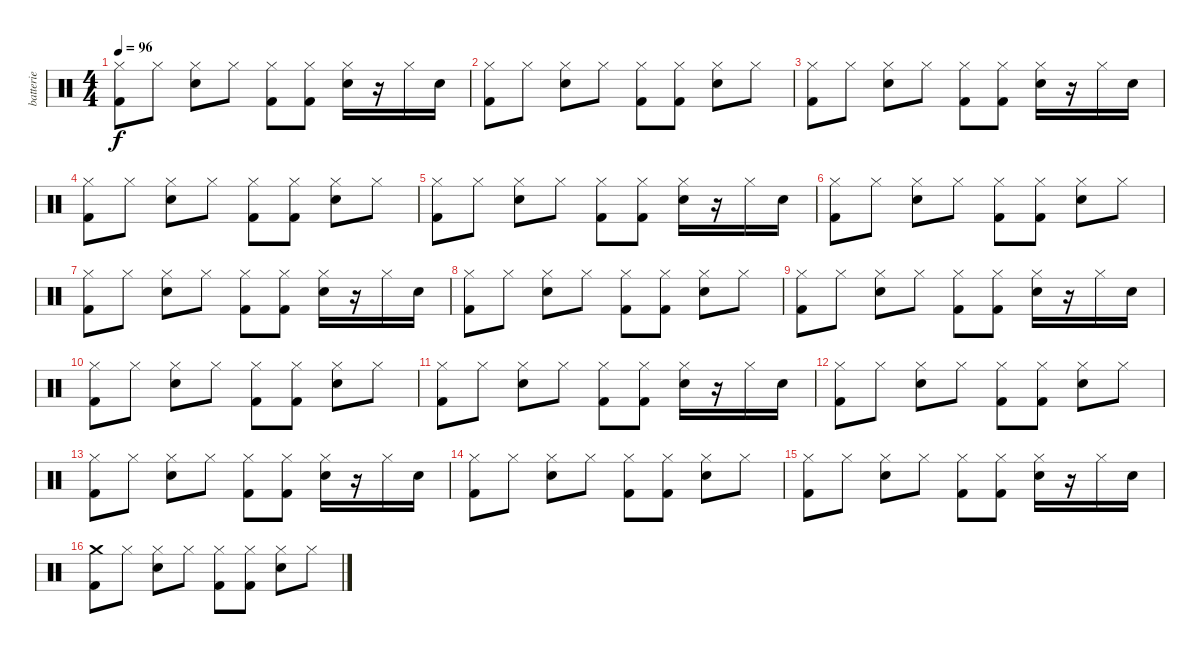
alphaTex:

\track ("batterie" "batterie") {instrument percussion}
\staff {score}
\articulation defaults
\ts (4 4)
\tempo 96
\clef neutral
\ks c
("Hi-Hat (closed)" "Kick (hit) 2").8{dy f} "Hi-Hat (closed)".8 ("Hi-Hat (closed)" "Electric Snare (hit)").8 "Hi-Hat (closed)".8 ("Hi-Hat (closed)" "Kick (hit) 2").8 ("Hi-Hat (closed)" "Kick (hit) 2").8 ("Hi-Hat (closed)" "Electric Snare (hit)").16 r.16 "Hi-Hat (closed)".16 "Electric Snare (hit)".16 |
("Hi-Hat (closed)" "Kick (hit) 2").8 "Hi-Hat (closed)".8 ("Hi-Hat (closed)" "Electric Snare (hit)").8 "Hi-Hat (closed)".8 ("Hi-Hat (closed)" "Kick (hit) 2").8 ("Hi-Hat (closed)" "Kick (hit) 2").8 ("Hi-Hat (closed)" "Electric Snare (hit)").8 "Hi-Hat (closed)".8 |
("Hi-Hat (closed)" "Kick (hit) 2").8 "Hi-Hat (closed)".8 ("Hi-Hat (closed)" "Electric Snare (hit)").8 "Hi-Hat (closed)".8 ("Hi-Hat (closed)" "Kick (hit) 2").8 ("Hi-Hat (closed)" "Kick (hit) 2").8 ("Hi-Hat (closed)" "Electric Snare (hit)").16 r.16 "Hi-Hat (closed)".16 "Electric Snare (hit)".16 |
("Hi-Hat (closed)" "Kick (hit) 2").8 "Hi-Hat (closed)".8 ("Hi-Hat (closed)" "Electric Snare (hit)").8 "Hi-Hat (closed)".8 ("Hi-Hat (closed)" "Kick (hit) 2").8 ("Hi-Hat (closed)" "Kick (hit) 2").8 ("Hi-Hat (closed)" "Electric Snare (hit)").8 "Hi-Hat (closed)".8 |
("Hi-Hat (closed)" "Kick (hit) 2").8 "Hi-Hat (closed)".8 ("Hi-Hat (closed)" "Electric Snare (hit)").8 "Hi-Hat (closed)".8 ("Hi-Hat (closed)" "Kick (hit) 2").8 ("Hi-Hat (closed)" "Kick (hit) 2").8 ("Hi-Hat (closed)" "Electric Snare (hit)").16 r.16 "Hi-Hat (closed)".16 "Electric Snare (hit)".16 |
("Hi-Hat (closed)" "Kick (hit) 2").8 "Hi-Hat (closed)".8 ("Hi-Hat (closed)" "Electric Snare (hit)").8 "Hi-Hat (closed)".8 ("Hi-Hat (closed)" "Kick (hit) 2").8 ("Hi-Hat (closed)" "Kick (hit) 2").8 ("Hi-Hat (closed)" "Electric Snare (hit)").8 "Hi-Hat (closed)".8 |
("Hi-Hat (closed)" "Kick (hit) 2").8 "Hi-Hat (closed)".8 ("Hi-Hat (closed)" "Electric Snare (hit)").8 "Hi-Hat (closed)".8 ("Hi-Hat (closed)" "Kick (hit) 2").8 ("Hi-Hat (closed)" "Kick (hit) 2").8 ("Hi-Hat (closed)" "Electric Snare (hit)").16 r.16 "Hi-Hat (closed)".16 "Electric Snare (hit)".16 |
("Hi-Hat (closed)" "Kick (hit) 2").8 "Hi-Hat (closed)".8 ("Hi-Hat (closed)" "Electric Snare (hit)").8 "Hi-Hat (closed)".8 ("Hi-Hat (closed)" "Kick (hit) 2").8 ("Hi-Hat (closed)" "Kick (hit) 2").8 ("Hi-Hat (closed)" "Electric Snare (hit)").8 "Hi-Hat (closed)".8 |
("Hi-Hat (closed)" "Kick (hit) 2").8 "Hi-Hat (closed)".8 ("Hi-Hat (closed)" "Electric Snare (hit)").8 "Hi-Hat (closed)".8 ("Hi-Hat (closed)" "Kick (hit) 2").8 ("Hi-Hat (closed)" "Kick (hit) 2").8 ("Hi-Hat (closed)" "Electric Snare (hit)").16 r.16 "Hi-Hat (closed)".16 "Electric Snare (hit)".16 |
("Hi-Hat (closed)" "Kick (hit) 2").8 "Hi-Hat (closed)".8 ("Hi-Hat (closed)" "Electric Snare (hit)").8 "Hi-Hat (closed)".8 ("Hi-Hat (closed)" "Kick (hit) 2").8 ("Hi-Hat (closed)" "Kick (hit) 2").8 ("Hi-Hat (closed)" "Electric Snare (hit)").8 "Hi-Hat (closed)".8 |
("Hi-Hat (closed)" "Kick (hit) 2").8 "Hi-Hat (closed)".8 ("Hi-Hat (closed)" "Electric Snare (hit)").8 "Hi-Hat (closed)".8 ("Hi-Hat (closed)" "Kick (hit) 2").8 ("Hi-Hat (closed)" "Kick (hit) 2").8 ("Hi-Hat (closed)" "Electric Snare (hit)").16 r.16 "Hi-Hat (closed)".16 "Electric Snare (hit)".16 |
("Hi-Hat (closed)" "Kick (hit) 2").8 "Hi-Hat (closed)".8 ("Hi-Hat (closed)" "Electric Snare (hit)").8 "Hi-Hat (closed)".8 ("Hi-Hat (closed)" "Kick (hit) 2").8 ("Hi-Hat (closed)" "Kick (hit) 2").8 ("Hi-Hat (closed)" "Electric Snare (hit)").8 "Hi-Hat (closed)".8 |
("Hi-Hat (closed)" "Kick (hit) 2").8 "Hi-Hat (closed)".8 ("Hi-Hat (closed)" "Electric Snare (hit)").8 "Hi-Hat (closed)".8 ("Hi-Hat (closed)" "Kick (hit) 2").8 ("Hi-Hat (closed)" "Kick (hit) 2").8 ("Hi-Hat (closed)" "Electric Snare (hit)").16 r.16 "Hi-Hat (closed)".16 "Electric Snare (hit)".16 |
("Hi-Hat (closed)" "Kick (hit) 2").8 "Hi-Hat (closed)".8 ("Hi-Hat (closed)" "Electric Snare (hit)").8 "Hi-Hat (closed)".8 ("Hi-Hat (closed)" "Kick (hit) 2").8 ("Hi-Hat (closed)" "Kick (hit) 2").8 ("Hi-Hat (closed)" "Electric Snare (hit)").8 "Hi-Hat (closed)".8 |
("Hi-Hat (closed)" "Kick (hit) 2").8 "Hi-Hat (closed)".8 ("Hi-Hat (closed)" "Electric Snare (hit)").8 "Hi-Hat (closed)".8 ("Hi-Hat (closed)" "Kick (hit) 2").8 ("Hi-Hat (closed)" "Kick (hit) 2").8 ("Hi-Hat (closed)" "Electric Snare (hit)").16 r.16 "Hi-Hat (closed)".16 "Electric Snare (hit)".16 |
("Crash medium (hit)" "Kick (hit) 2").8 "Hi-Hat (closed)".8 ("Hi-Hat (closed)" "Electric Snare (hit)").8 "Hi-Hat (closed)".8 ("Hi-Hat (closed)" "Kick (hit) 2").8 ("Hi-Hat (closed)" "Kick (hit) 2").8 ("Hi-Hat (closed)" "Electric Snare (hit)").8 "Hi-Hat (closed)".8
